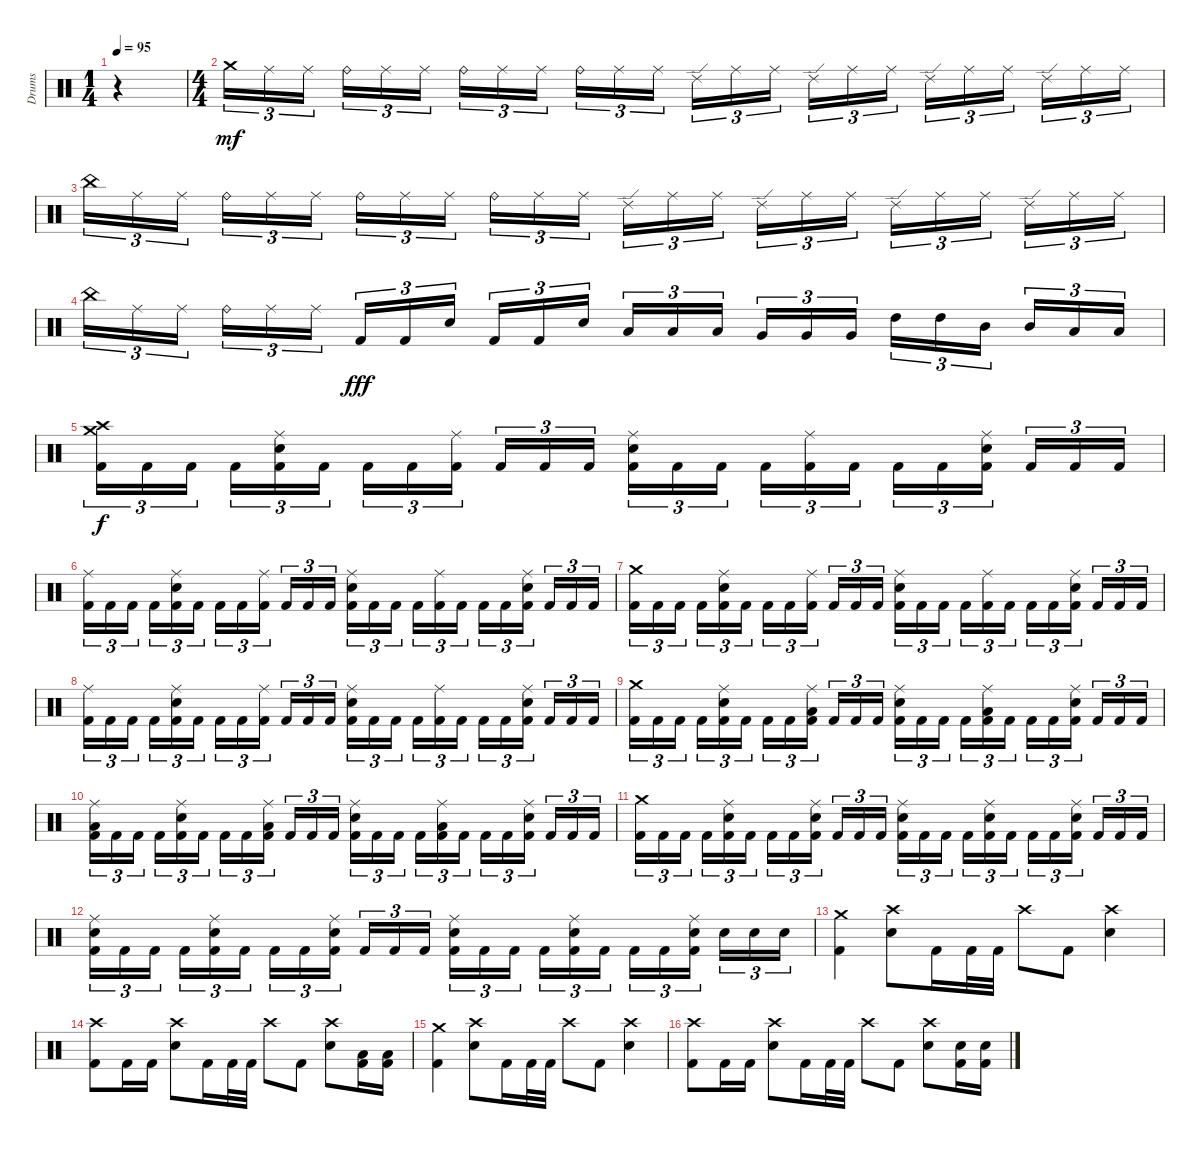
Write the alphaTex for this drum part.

\track ("Drums" "Drums") {instrument percussion}
\staff {score}
\articulation defaults
\ts (1 4)
\tempo 95
\clef neutral
\ks c
r.4{dy mf} |
\ts (4 4)
"Crash medium (hit)".16{tu (3 2)} "Ride (middle)".16{tu (3 2)} "Ride (middle)".16{tu (3 2)} "Ride (bell)".16{tu (3 2)} "Ride (middle)".16{tu (3 2)} "Ride (middle)".16{tu (3 2)} "Ride (bell)".16{tu (3 2)} "Ride (middle)".16{tu (3 2)} "Ride (middle)".16{tu (3 2)} "Ride (bell)".16{tu (3 2)} "Ride (middle)".16{tu (3 2)} "Ride (middle)".16{tu (3 2)} "Ride (edge) 2".16{tu (3 2)} "Ride (middle)".16{tu (3 2)} "Ride (middle)".16{tu (3 2)} "Ride (edge) 2".16{tu (3 2)} "Ride (middle)".16{tu (3 2)} "Ride (middle)".16{tu (3 2)} "Ride (edge) 2".16{tu (3 2)} "Ride (middle)".16{tu (3 2)} "Ride (middle)".16{tu (3 2)} "Ride (edge) 2".16{tu (3 2)} "Ride (middle)".16{tu (3 2)} "Ride (middle)".16{tu (3 2)} |
"China (hit)".16{tu (3 2)} "Ride (middle)".16{tu (3 2)} "Ride (middle)".16{tu (3 2)} "Ride (bell)".16{tu (3 2)} "Ride (middle)".16{tu (3 2)} "Ride (middle)".16{tu (3 2)} "Ride (bell)".16{tu (3 2)} "Ride (middle)".16{tu (3 2)} "Ride (middle)".16{tu (3 2)} "Ride (bell)".16{tu (3 2)} "Ride (middle)".16{tu (3 2)} "Ride (middle)".16{tu (3 2)} "Ride (edge) 2".16{tu (3 2)} "Ride (middle)".16{tu (3 2)} "Ride (middle)".16{tu (3 2)} "Ride (edge) 2".16{tu (3 2)} "Ride (middle)".16{tu (3 2)} "Ride (middle)".16{tu (3 2)} "Ride (edge) 2".16{tu (3 2)} "Ride (middle)".16{tu (3 2)} "Ride (middle)".16{tu (3 2)} "Ride (edge) 2".16{tu (3 2)} "Ride (middle)".16{tu (3 2)} "Ride (middle)".16{tu (3 2)} |
"China (hit)".16{tu (3 2)} "Ride (middle)".16{tu (3 2)} "Ride (middle)".16{tu (3 2)} "Ride (bell)".16{tu (3 2)} "Ride (middle)".16{tu (3 2)} "Ride (middle)".16{tu (3 2)} "Kick (hit) 2".16{tu (3 2) dy fff} "Kick (hit) 2".16{tu (3 2)} "Electric Snare (hit)".16{tu (3 2)} "Kick (hit) 2".16{tu (3 2)} "Kick (hit) 2".16{tu (3 2)} "Electric Snare (hit)".16{tu (3 2)} "Low Tom (hit)".16{tu (3 2)} "Low Tom (hit)".16{tu (3 2)} "Low Tom (hit)".16{tu (3 2)} "Very Low Tom (hit)".16{tu (3 2)} "Very Low Tom (hit)".16{tu (3 2)} "Very Low Tom (hit)".16{tu (3 2)} "High Tom (hit)".16{tu (3 2)} "High Tom (hit)".16{tu (3 2)} "Mid Tom (hit)".16{tu (3 2)} "Mid Tom (hit)".16{tu (3 2)} "Low Tom (hit)".16{tu (3 2)} "Low Tom (hit)".16{tu (3 2)} |
("Crash medium (hit)" "Crash high (hit)" "Kick (hit) 2").16{tu (3 2) dy f} "Kick (hit) 2".16{tu (3 2)} "Kick (hit) 2".16{tu (3 2)} "Kick (hit) 2".16{tu (3 2)} ("Ride (middle)" "Electric Snare (hit)" "Kick (hit) 2").16{tu (3 2)} "Kick (hit) 2".16{tu (3 2)} "Kick (hit) 2".16{tu (3 2)} "Kick (hit) 2".16{tu (3 2)} ("Ride (middle)" "Kick (hit) 2").16{tu (3 2)} "Kick (hit) 2".16{tu (3 2)} "Kick (hit) 2".16{tu (3 2)} "Kick (hit) 2".16{tu (3 2)} ("Ride (middle)" "Electric Snare (hit)" "Kick (hit) 2").16{tu (3 2)} "Kick (hit) 2".16{tu (3 2)} "Kick (hit) 2".16{tu (3 2)} "Kick (hit) 2".16{tu (3 2)} ("Ride (middle)" "Kick (hit) 2").16{tu (3 2)} "Kick (hit) 2".16{tu (3 2)} "Kick (hit) 2".16{tu (3 2)} "Kick (hit) 2".16{tu (3 2)} ("Ride (middle)" "Electric Snare (hit)" "Kick (hit) 2").16{tu (3 2)} "Kick (hit) 2".16{tu (3 2)} "Kick (hit) 2".16{tu (3 2)} "Kick (hit) 2".16{tu (3 2)} |
("Ride (middle)" "Kick (hit) 2").16{tu (3 2)} "Kick (hit) 2".16{tu (3 2)} "Kick (hit) 2".16{tu (3 2)} "Kick (hit) 2".16{tu (3 2)} ("Ride (middle)" "Electric Snare (hit)" "Kick (hit) 2").16{tu (3 2)} "Kick (hit) 2".16{tu (3 2)} "Kick (hit) 2".16{tu (3 2)} "Kick (hit) 2".16{tu (3 2)} ("Ride (middle)" "Kick (hit) 2").16{tu (3 2)} "Kick (hit) 2".16{tu (3 2)} "Kick (hit) 2".16{tu (3 2)} "Kick (hit) 2".16{tu (3 2)} ("Ride (middle)" "Electric Snare (hit)" "Kick (hit) 2").16{tu (3 2)} "Kick (hit) 2".16{tu (3 2)} "Kick (hit) 2".16{tu (3 2)} "Kick (hit) 2".16{tu (3 2)} ("Ride (middle)" "Kick (hit) 2").16{tu (3 2)} "Kick (hit) 2".16{tu (3 2)} "Kick (hit) 2".16{tu (3 2)} "Kick (hit) 2".16{tu (3 2)} ("Ride (middle)" "Electric Snare (hit)" "Kick (hit) 2").16{tu (3 2)} "Kick (hit) 2".16{tu (3 2)} "Kick (hit) 2".16{tu (3 2)} "Kick (hit) 2".16{tu (3 2)} |
("Crash medium (hit)" "Kick (hit) 2").16{tu (3 2)} "Kick (hit) 2".16{tu (3 2)} "Kick (hit) 2".16{tu (3 2)} "Kick (hit) 2".16{tu (3 2)} ("Ride (middle)" "Electric Snare (hit)" "Kick (hit) 2").16{tu (3 2)} "Kick (hit) 2".16{tu (3 2)} "Kick (hit) 2".16{tu (3 2)} "Kick (hit) 2".16{tu (3 2)} ("Ride (middle)" "Kick (hit) 2").16{tu (3 2)} "Kick (hit) 2".16{tu (3 2)} "Kick (hit) 2".16{tu (3 2)} "Kick (hit) 2".16{tu (3 2)} ("Ride (middle)" "Electric Snare (hit)" "Kick (hit) 2").16{tu (3 2)} "Kick (hit) 2".16{tu (3 2)} "Kick (hit) 2".16{tu (3 2)} "Kick (hit) 2".16{tu (3 2)} ("Ride (middle)" "Kick (hit) 2").16{tu (3 2)} "Kick (hit) 2".16{tu (3 2)} "Kick (hit) 2".16{tu (3 2)} "Kick (hit) 2".16{tu (3 2)} ("Ride (middle)" "Electric Snare (hit)" "Kick (hit) 2").16{tu (3 2)} "Kick (hit) 2".16{tu (3 2)} "Kick (hit) 2".16{tu (3 2)} "Kick (hit) 2".16{tu (3 2)} |
("Ride (middle)" "Kick (hit) 2").16{tu (3 2)} "Kick (hit) 2".16{tu (3 2)} "Kick (hit) 2".16{tu (3 2)} "Kick (hit) 2".16{tu (3 2)} ("Ride (middle)" "Electric Snare (hit)" "Kick (hit) 2").16{tu (3 2)} "Kick (hit) 2".16{tu (3 2)} "Kick (hit) 2".16{tu (3 2)} "Kick (hit) 2".16{tu (3 2)} ("Ride (middle)" "Kick (hit) 2").16{tu (3 2)} "Kick (hit) 2".16{tu (3 2)} "Kick (hit) 2".16{tu (3 2)} "Kick (hit) 2".16{tu (3 2)} ("Ride (middle)" "Electric Snare (hit)" "Kick (hit) 2").16{tu (3 2)} "Kick (hit) 2".16{tu (3 2)} "Kick (hit) 2".16{tu (3 2)} "Kick (hit) 2".16{tu (3 2)} ("Ride (middle)" "Kick (hit) 2").16{tu (3 2)} "Kick (hit) 2".16{tu (3 2)} "Kick (hit) 2".16{tu (3 2)} "Kick (hit) 2".16{tu (3 2)} ("Ride (middle)" "Electric Snare (hit)" "Kick (hit) 2").16{tu (3 2)} "Kick (hit) 2".16{tu (3 2)} "Kick (hit) 2".16{tu (3 2)} "Kick (hit) 2".16{tu (3 2)} |
("Crash medium (hit)" "Kick (hit) 2").16{tu (3 2)} "Kick (hit) 2".16{tu (3 2)} "Kick (hit) 2".16{tu (3 2)} "Kick (hit) 2".16{tu (3 2)} ("Ride (middle)" "Electric Snare (hit)" "Kick (hit) 2").16{tu (3 2)} "Kick (hit) 2".16{tu (3 2)} "Kick (hit) 2".16{tu (3 2)} "Kick (hit) 2".16{tu (3 2)} ("Ride (middle)" "Low Tom (hit)" "Kick (hit) 2").16{tu (3 2)} "Kick (hit) 2".16{tu (3 2)} "Kick (hit) 2".16{tu (3 2)} "Kick (hit) 2".16{tu (3 2)} ("Ride (middle)" "Electric Snare (hit)" "Kick (hit) 2").16{tu (3 2)} "Kick (hit) 2".16{tu (3 2)} "Kick (hit) 2".16{tu (3 2)} "Kick (hit) 2".16{tu (3 2)} ("Ride (middle)" "Low Tom (hit)" "Kick (hit) 2").16{tu (3 2)} "Kick (hit) 2".16{tu (3 2)} "Kick (hit) 2".16{tu (3 2)} "Kick (hit) 2".16{tu (3 2)} ("Ride (middle)" "Electric Snare (hit)" "Kick (hit) 2").16{tu (3 2)} "Kick (hit) 2".16{tu (3 2)} "Kick (hit) 2".16{tu (3 2)} "Kick (hit) 2".16{tu (3 2)} |
("Ride (middle)" "Low Tom (hit)" "Kick (hit) 2").16{tu (3 2)} "Kick (hit) 2".16{tu (3 2)} "Kick (hit) 2".16{tu (3 2)} "Kick (hit) 2".16{tu (3 2)} ("Ride (middle)" "Electric Snare (hit)" "Kick (hit) 2").16{tu (3 2)} "Kick (hit) 2".16{tu (3 2)} "Kick (hit) 2".16{tu (3 2)} "Kick (hit) 2".16{tu (3 2)} ("Ride (middle)" "Low Tom (hit)" "Kick (hit) 2").16{tu (3 2)} "Kick (hit) 2".16{tu (3 2)} "Kick (hit) 2".16{tu (3 2)} "Kick (hit) 2".16{tu (3 2)} ("Ride (middle)" "Electric Snare (hit)" "Kick (hit) 2").16{tu (3 2)} "Kick (hit) 2".16{tu (3 2)} "Kick (hit) 2".16{tu (3 2)} "Kick (hit) 2".16{tu (3 2)} ("Ride (middle)" "Low Tom (hit)" "Kick (hit) 2").16{tu (3 2)} "Kick (hit) 2".16{tu (3 2)} "Kick (hit) 2".16{tu (3 2)} "Kick (hit) 2".16{tu (3 2)} ("Ride (middle)" "Electric Snare (hit)" "Kick (hit) 2").16{tu (3 2)} "Kick (hit) 2".16{tu (3 2)} "Kick (hit) 2".16{tu (3 2)} "Kick (hit) 2".16{tu (3 2)} |
("Crash medium (hit)" "Kick (hit) 2").16{tu (3 2)} "Kick (hit) 2".16{tu (3 2)} "Kick (hit) 2".16{tu (3 2)} "Kick (hit) 2".16{tu (3 2)} ("Ride (middle)" "Electric Snare (hit)" "Kick (hit) 2").16{tu (3 2)} "Kick (hit) 2".16{tu (3 2)} "Kick (hit) 2".16{tu (3 2)} "Kick (hit) 2".16{tu (3 2)} ("Ride (middle)" "Electric Snare (hit)" "Kick (hit) 2").16{tu (3 2)} "Kick (hit) 2".16{tu (3 2)} "Kick (hit) 2".16{tu (3 2)} "Kick (hit) 2".16{tu (3 2)} ("Ride (middle)" "Electric Snare (hit)" "Kick (hit) 2").16{tu (3 2)} "Kick (hit) 2".16{tu (3 2)} "Kick (hit) 2".16{tu (3 2)} "Kick (hit) 2".16{tu (3 2)} ("Ride (middle)" "Electric Snare (hit)" "Kick (hit) 2").16{tu (3 2)} "Kick (hit) 2".16{tu (3 2)} "Kick (hit) 2".16{tu (3 2)} "Kick (hit) 2".16{tu (3 2)} ("Ride (middle)" "Electric Snare (hit)" "Kick (hit) 2").16{tu (3 2)} "Kick (hit) 2".16{tu (3 2)} "Kick (hit) 2".16{tu (3 2)} "Kick (hit) 2".16{tu (3 2)} |
("Ride (middle)" "Electric Snare (hit)" "Kick (hit) 2").16{tu (3 2)} "Kick (hit) 2".16{tu (3 2)} "Kick (hit) 2".16{tu (3 2)} "Kick (hit) 2".16{tu (3 2)} ("Ride (middle)" "Electric Snare (hit)" "Kick (hit) 2").16{tu (3 2)} "Kick (hit) 2".16{tu (3 2)} "Kick (hit) 2".16{tu (3 2)} "Kick (hit) 2".16{tu (3 2)} ("Ride (middle)" "Electric Snare (hit)" "Kick (hit) 2").16{tu (3 2)} "Kick (hit) 2".16{tu (3 2)} "Kick (hit) 2".16{tu (3 2)} "Kick (hit) 2".16{tu (3 2)} ("Ride (middle)" "Electric Snare (hit)" "Kick (hit) 2").16{tu (3 2)} "Kick (hit) 2".16{tu (3 2)} "Kick (hit) 2".16{tu (3 2)} "Kick (hit) 2".16{tu (3 2)} ("Ride (middle)" "Electric Snare (hit)" "Kick (hit) 2").16{tu (3 2)} "Kick (hit) 2".16{tu (3 2)} "Kick (hit) 2".16{tu (3 2)} "Kick (hit) 2".16{tu (3 2)} ("Ride (middle)" "Electric Snare (hit)" "Kick (hit) 2").16{tu (3 2)} "Electric Snare (hit)".16{tu (3 2)} "Electric Snare (hit)".16{tu (3 2)} "Electric Snare (hit)".16{tu (3 2)} |
("Crash medium (hit)" "Kick (hit) 2").4 ("Crash high (hit)" "Electric Snare (hit)").8 "Kick (hit) 2".16 "Kick (hit) 2".32 "Kick (hit) 2".32 "Crash high (hit)".8 "Kick (hit) 2".8 ("Crash high (hit)" "Electric Snare (hit)").4 |
("Crash high (hit)" "Kick (hit) 2").8 "Kick (hit) 2".16 "Kick (hit) 2".16 ("Crash high (hit)" "Electric Snare (hit)").8 "Kick (hit) 2".16 "Kick (hit) 2".32 "Kick (hit) 2".32 "Crash high (hit)".8 "Kick (hit) 2".8 ("Crash high (hit)" "Electric Snare (hit)").8 ("Low Tom (hit)" "Kick (hit) 2").16 ("Low Tom (hit)" "Kick (hit) 2").16 |
("Crash medium (hit)" "Kick (hit) 2").4 ("Crash high (hit)" "Electric Snare (hit)").8 "Kick (hit) 2".16 "Kick (hit) 2".32 "Kick (hit) 2".32 "Crash high (hit)".8 "Kick (hit) 2".8 ("Crash high (hit)" "Electric Snare (hit)").4 |
("Crash high (hit)" "Kick (hit) 2").8 "Kick (hit) 2".16 "Kick (hit) 2".16 ("Crash high (hit)" "Electric Snare (hit)").8 "Kick (hit) 2".16 "Kick (hit) 2".32 "Kick (hit) 2".32 "Crash high (hit)".8 "Kick (hit) 2".8 ("Crash high (hit)" "Electric Snare (hit)").8 ("Electric Snare (hit)" "Kick (hit) 2").16 ("Electric Snare (hit)" "Kick (hit) 2").16
